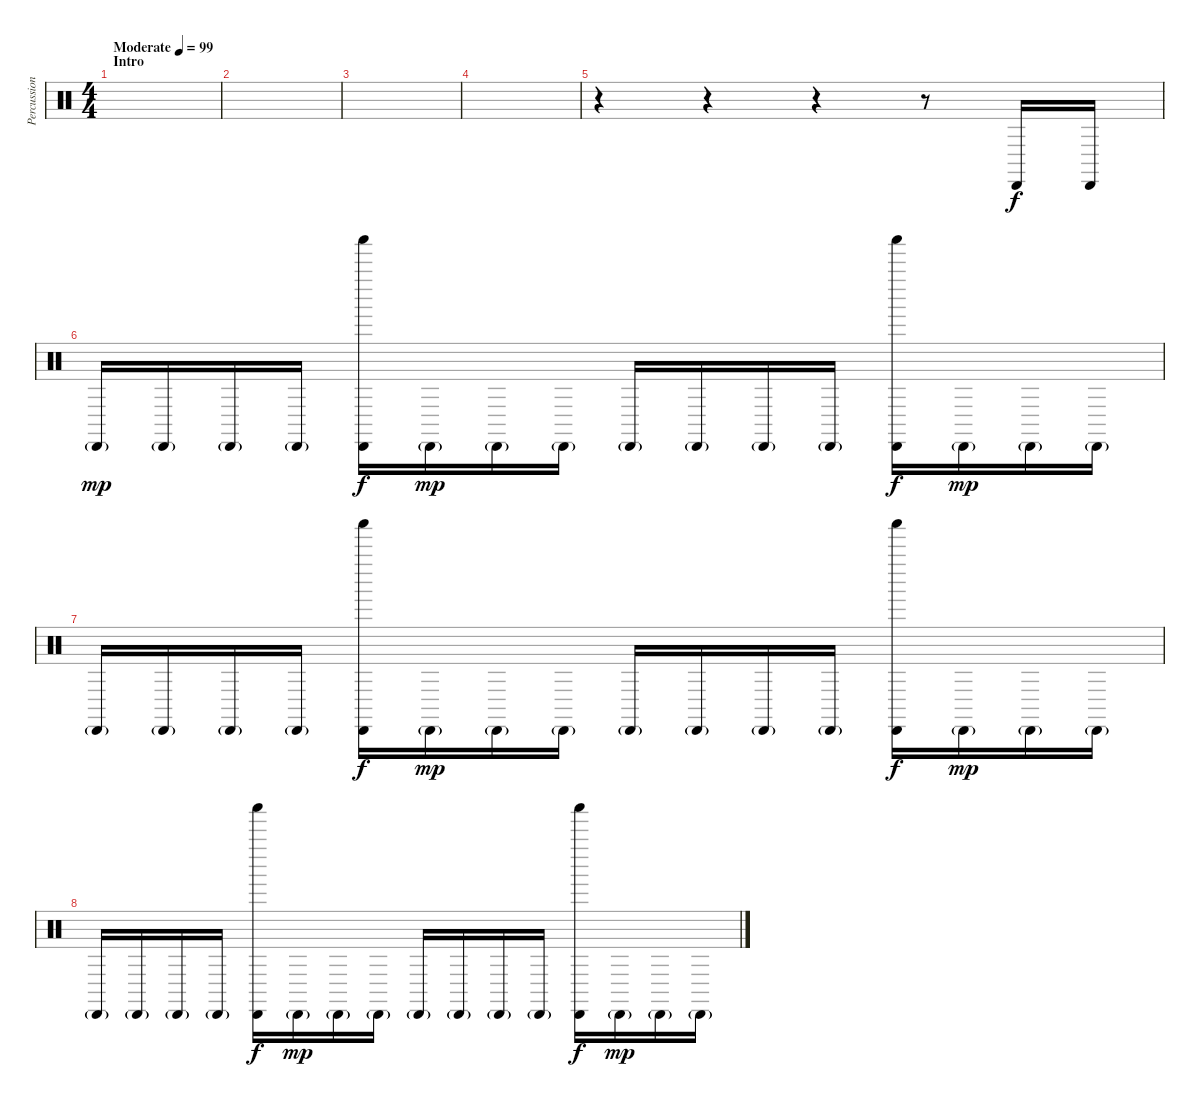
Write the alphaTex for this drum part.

\track ("Percussion" "Percussion") {instrument percussion}
\staff {score}
\articulation defaults
\ts (4 4)
\section ("" "Intro")
\tempo (99 "Moderate")
\clef neutral
\ks c
|
|
|
|
r.4 r.4 r.4 r.8 "Cabasa (hit)".16 "Cabasa (hit)".16 |
"Cabasa (hit)"{g}.16{dy mp} "Cabasa (hit)"{g}.16 "Cabasa (hit)"{g}.16 "Cabasa (hit)"{g}.16 ("Cabasa (hit)" "Shaker (hit)").16{dy f} "Cabasa (hit)"{g}.16{dy mp} "Cabasa (hit)"{g}.16 "Cabasa (hit)"{g}.16 "Cabasa (hit)"{g}.16 "Cabasa (hit)"{g}.16 "Cabasa (hit)"{g}.16 "Cabasa (hit)"{g}.16 ("Cabasa (hit)" "Shaker (hit)").16{dy f} "Cabasa (hit)"{g}.16{dy mp} "Cabasa (hit)"{g}.16 "Cabasa (hit)"{g}.16 |
"Cabasa (hit)"{g}.16 "Cabasa (hit)"{g}.16 "Cabasa (hit)"{g}.16 "Cabasa (hit)"{g}.16 ("Cabasa (hit)" "Shaker (hit)").16{dy f} "Cabasa (hit)"{g}.16{dy mp} "Cabasa (hit)"{g}.16 "Cabasa (hit)"{g}.16 "Cabasa (hit)"{g}.16 "Cabasa (hit)"{g}.16 "Cabasa (hit)"{g}.16 "Cabasa (hit)"{g}.16 ("Cabasa (hit)" "Shaker (hit)").16{dy f} "Cabasa (hit)"{g}.16{dy mp} "Cabasa (hit)"{g}.16 "Cabasa (hit)"{g}.16 |
"Cabasa (hit)"{g}.16 "Cabasa (hit)"{g}.16 "Cabasa (hit)"{g}.16 "Cabasa (hit)"{g}.16 ("Cabasa (hit)" "Shaker (hit)").16{dy f} "Cabasa (hit)"{g}.16{dy mp} "Cabasa (hit)"{g}.16 "Cabasa (hit)"{g}.16 "Cabasa (hit)"{g}.16 "Cabasa (hit)"{g}.16 "Cabasa (hit)"{g}.16 "Cabasa (hit)"{g}.16 ("Cabasa (hit)" "Shaker (hit)").16{dy f} "Cabasa (hit)"{g}.16{dy mp} "Cabasa (hit)"{g}.16 "Cabasa (hit)"{g}.16
